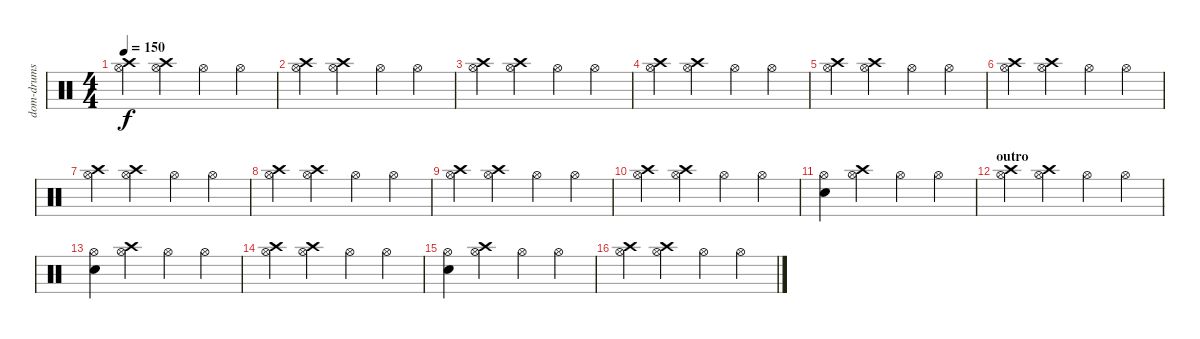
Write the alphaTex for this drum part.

\track ("dom-drums" "dom-drums") {instrument percussion}
\staff {score}
\articulation defaults
\ts (4 4)
\tempo 150
\clef neutral
\ks c
("Crash high (hit)" "Hi-Hat (open)").4{dy f} ("Crash high (hit)" "Hi-Hat (open)").4 "Hi-Hat (open)".4 "Hi-Hat (open)".4 |
("Crash high (hit)" "Hi-Hat (open)").4 ("Crash high (hit)" "Hi-Hat (open)").4 "Hi-Hat (open)".4 "Hi-Hat (open)".4 |
("Crash high (hit)" "Hi-Hat (open)").4 ("Crash high (hit)" "Hi-Hat (open)").4 "Hi-Hat (open)".4 "Hi-Hat (open)".4 |
("Crash high (hit)" "Hi-Hat (open)").4 ("Crash high (hit)" "Hi-Hat (open)").4 "Hi-Hat (open)".4 "Hi-Hat (open)".4 |
("Crash high (hit)" "Hi-Hat (open)").4 ("Crash high (hit)" "Hi-Hat (open)").4 "Hi-Hat (open)".4 "Hi-Hat (open)".4 |
("Crash high (hit)" "Hi-Hat (open)").4 ("Crash high (hit)" "Hi-Hat (open)").4 "Hi-Hat (open)".4 "Hi-Hat (open)".4 |
("Crash high (hit)" "Hi-Hat (open)").4 ("Crash high (hit)" "Hi-Hat (open)").4 "Hi-Hat (open)".4 "Hi-Hat (open)".4 |
("Crash high (hit)" "Hi-Hat (open)").4 ("Crash high (hit)" "Hi-Hat (open)").4 "Hi-Hat (open)".4 "Hi-Hat (open)".4 |
("Crash high (hit)" "Hi-Hat (open)").4 ("Crash high (hit)" "Hi-Hat (open)").4 "Hi-Hat (open)".4 "Hi-Hat (open)".4 |
("Crash high (hit)" "Hi-Hat (open)").4 ("Crash high (hit)" "Hi-Hat (open)").4 "Hi-Hat (open)".4 "Hi-Hat (open)".4 |
("Snare (hit)" "Hi-Hat (open)").4 ("Crash high (hit)" "Hi-Hat (open)").4 "Hi-Hat (open)".4 "Hi-Hat (open)".4 |
\section ("" "outro")
("Crash high (hit)" "Hi-Hat (open)").4 ("Crash high (hit)" "Hi-Hat (open)").4 "Hi-Hat (open)".4 "Hi-Hat (open)".4 |
("Snare (hit)" "Hi-Hat (open)").4 ("Crash high (hit)" "Hi-Hat (open)").4 "Hi-Hat (open)".4 "Hi-Hat (open)".4 |
("Crash high (hit)" "Hi-Hat (open)").4 ("Crash high (hit)" "Hi-Hat (open)").4 "Hi-Hat (open)".4 "Hi-Hat (open)".4 |
("Snare (hit)" "Hi-Hat (open)").4 ("Crash high (hit)" "Hi-Hat (open)").4 "Hi-Hat (open)".4 "Hi-Hat (open)".4 |
("Crash high (hit)" "Hi-Hat (open)").4 ("Crash high (hit)" "Hi-Hat (open)").4 "Hi-Hat (open)".4 "Hi-Hat (open)".4
